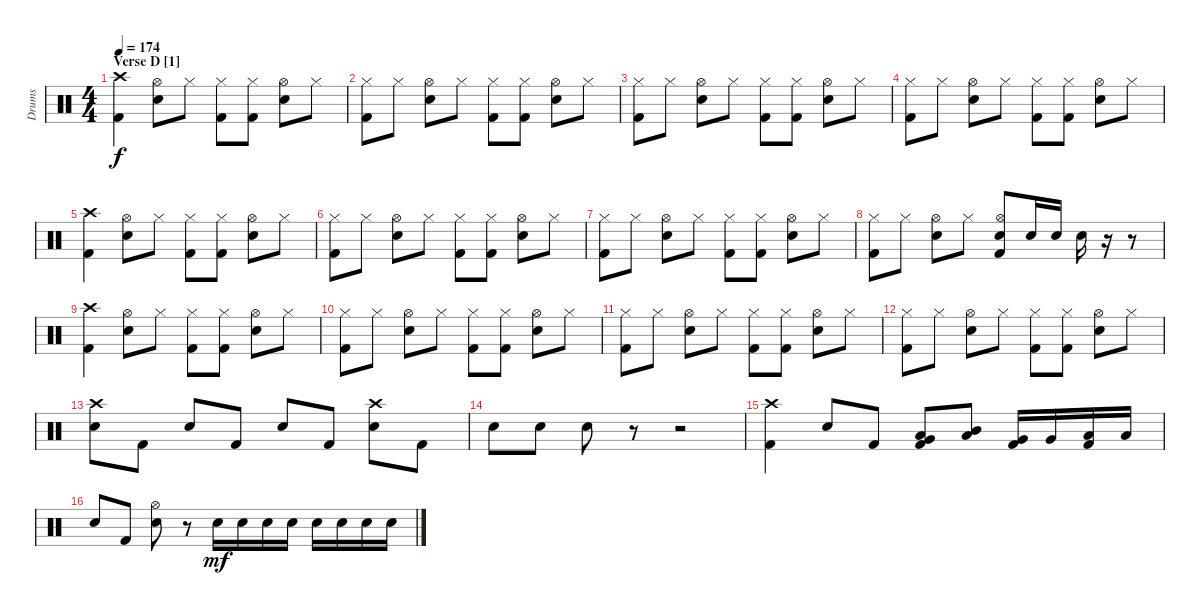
\track ("Drums" "Drums") {instrument percussion}
\staff {score}
\articulation defaults
\ts (4 4)
\section ("" "Verse D [1]")
\tempo 174
\clef neutral
\ks c
("Crash high (hit)" "Kick (hit) 2").4{dy f} ("Hi-Hat (open)" "Electric Snare (hit)").8 "Hi-Hat (closed)".8 ("Hi-Hat (closed)" "Kick (hit) 2").8 ("Hi-Hat (closed)" "Kick (hit) 2").8 ("Hi-Hat (open)" "Electric Snare (hit)").8 "Hi-Hat (closed)".8 |
("Hi-Hat (closed)" "Kick (hit) 2").8 "Hi-Hat (closed)".8 ("Hi-Hat (open)" "Electric Snare (hit)").8 "Hi-Hat (closed)".8 ("Hi-Hat (closed)" "Kick (hit) 2").8 ("Hi-Hat (closed)" "Kick (hit) 2").8 ("Hi-Hat (open)" "Electric Snare (hit)").8 "Hi-Hat (closed)".8 |
("Hi-Hat (closed)" "Kick (hit) 2").8 "Hi-Hat (closed)".8 ("Hi-Hat (open)" "Electric Snare (hit)").8 "Hi-Hat (closed)".8 ("Hi-Hat (closed)" "Kick (hit) 2").8 ("Hi-Hat (closed)" "Kick (hit) 2").8 ("Hi-Hat (open)" "Electric Snare (hit)").8 "Hi-Hat (closed)".8 |
("Hi-Hat (closed)" "Kick (hit) 2").8 "Hi-Hat (closed)".8 ("Hi-Hat (open)" "Electric Snare (hit)").8 "Hi-Hat (closed)".8 ("Hi-Hat (closed)" "Kick (hit) 2").8 ("Hi-Hat (closed)" "Kick (hit) 2").8 ("Hi-Hat (open)" "Electric Snare (hit)").8 "Hi-Hat (closed)".8 |
("Crash high (hit)" "Kick (hit) 2").4 ("Hi-Hat (open)" "Electric Snare (hit)").8 "Hi-Hat (closed)".8 ("Hi-Hat (closed)" "Kick (hit) 2").8 ("Hi-Hat (closed)" "Kick (hit) 2").8 ("Hi-Hat (open)" "Electric Snare (hit)").8 "Hi-Hat (closed)".8 |
("Hi-Hat (closed)" "Kick (hit) 2").8 "Hi-Hat (closed)".8 ("Hi-Hat (open)" "Electric Snare (hit)").8 "Hi-Hat (closed)".8 ("Hi-Hat (closed)" "Kick (hit) 2").8 ("Hi-Hat (closed)" "Kick (hit) 2").8 ("Hi-Hat (open)" "Electric Snare (hit)").8 "Hi-Hat (closed)".8 |
("Hi-Hat (closed)" "Kick (hit) 2").8 "Hi-Hat (closed)".8 ("Hi-Hat (open)" "Electric Snare (hit)").8 "Hi-Hat (closed)".8 ("Hi-Hat (closed)" "Kick (hit) 2").8 ("Hi-Hat (closed)" "Kick (hit) 2").8 ("Hi-Hat (open)" "Electric Snare (hit)").8 "Hi-Hat (closed)".8 |
("Hi-Hat (closed)" "Kick (hit) 2").8 "Hi-Hat (closed)".8 ("Hi-Hat (open)" "Electric Snare (hit)").8 "Hi-Hat (closed)".8 ("Hi-Hat (open)" "Electric Snare (hit)" "Kick (hit) 2").8 "Electric Snare (hit)".16 "Electric Snare (hit)".16 "Electric Snare (hit)".16 r.16 r.8 |
("Crash high (hit)" "Kick (hit) 2").4 ("Hi-Hat (open)" "Electric Snare (hit)").8 "Hi-Hat (closed)".8 ("Hi-Hat (closed)" "Kick (hit) 2").8 ("Hi-Hat (closed)" "Kick (hit) 2").8 ("Hi-Hat (open)" "Electric Snare (hit)").8 "Hi-Hat (closed)".8 |
("Hi-Hat (closed)" "Kick (hit) 2").8 "Hi-Hat (closed)".8 ("Hi-Hat (open)" "Electric Snare (hit)").8 "Hi-Hat (closed)".8 ("Hi-Hat (closed)" "Kick (hit) 2").8 ("Hi-Hat (closed)" "Kick (hit) 2").8 ("Hi-Hat (open)" "Electric Snare (hit)").8 "Hi-Hat (closed)".8 |
("Hi-Hat (closed)" "Kick (hit) 2").8 "Hi-Hat (closed)".8 ("Hi-Hat (open)" "Electric Snare (hit)").8 "Hi-Hat (closed)".8 ("Hi-Hat (closed)" "Kick (hit) 2").8 ("Hi-Hat (closed)" "Kick (hit) 2").8 ("Hi-Hat (open)" "Electric Snare (hit)").8 "Hi-Hat (closed)".8 |
("Hi-Hat (closed)" "Kick (hit) 2").8 "Hi-Hat (closed)".8 ("Hi-Hat (open)" "Electric Snare (hit)").8 "Hi-Hat (closed)".8 ("Hi-Hat (closed)" "Kick (hit) 2").8 ("Hi-Hat (closed)" "Kick (hit) 2").8 ("Hi-Hat (open)" "Electric Snare (hit)").8 "Hi-Hat (closed)".8 |
("Crash high (hit)" "Electric Snare (hit)").8 "Kick (hit) 2".8 "Electric Snare (hit)".8 "Kick (hit) 2".8 "Electric Snare (hit)".8 "Kick (hit) 2".8 ("Crash high (hit)" "Electric Snare (hit)").8 "Kick (hit) 2".8 |
"Electric Snare (hit)".8 "Electric Snare (hit)".8 "Electric Snare (hit)".8 r.8 r.2 |
("Crash high (hit)" "Kick (hit) 2").4 "Electric Snare (hit)".8 "Kick (hit) 2".8 ("Low Tom (hit)" "Very Low Tom (hit)" "Kick (hit) 2").8 ("Mid Tom (hit)" "Low Tom (hit)").8 ("Very Low Tom (hit)" "Kick (hit) 2").16 "Very Low Tom (hit)".16 ("Low Floor Tom (hit)" "Kick (hit) 2").16 "Low Floor Tom (hit)".16 |
"Electric Snare (hit)".8 "Kick (hit) 2".8 ("Hi-Hat (open)" "Electric Snare (hit)").8 r.8 "Electric Snare (hit)".16{dy mf} "Electric Snare (hit)".16 "Electric Snare (hit)".16 "Electric Snare (hit)".16 "Electric Snare (hit)".16 "Electric Snare (hit)".16 "Electric Snare (hit)".16 "Electric Snare (hit)".16
